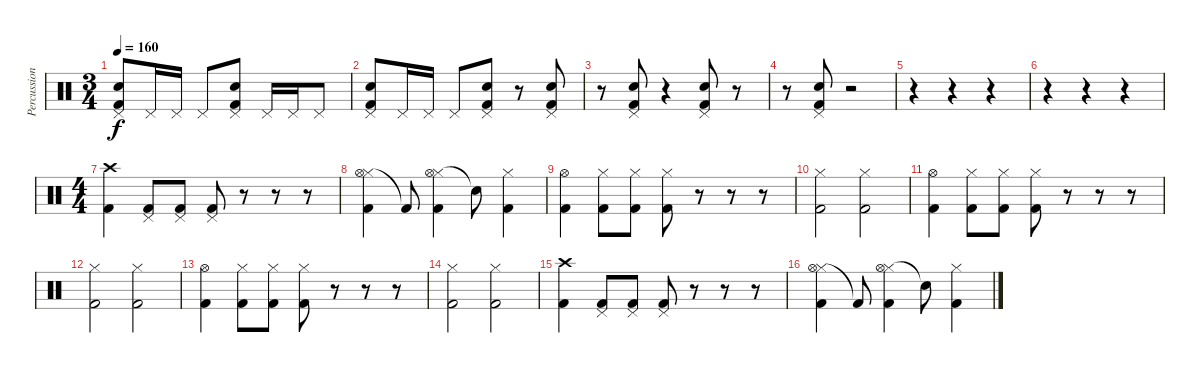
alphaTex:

\track ("Percussion" "Percussion") {instrument percussion}
\staff {score}
\articulation defaults
\ts (3 4)
\tempo 160
\clef neutral
\ks c
("Snare (hit) 2" "Kick (hit) 2" "Pedal Hi-Hat (hit)").8{dy f} "Pedal Hi-Hat (hit)".16 "Pedal Hi-Hat (hit)".16 "Pedal Hi-Hat (hit)".8 ("Electric Snare (hit)" "Kick (hit) 2" "Pedal Hi-Hat (hit)").8 "Pedal Hi-Hat (hit)".16 "Pedal Hi-Hat (hit)".16 "Pedal Hi-Hat (hit)".8 |
("Snare (hit) 2" "Kick (hit) 2" "Pedal Hi-Hat (hit)").8 "Pedal Hi-Hat (hit)".16 "Pedal Hi-Hat (hit)".16 "Pedal Hi-Hat (hit)".8 ("Electric Snare (hit)" "Kick (hit) 2" "Pedal Hi-Hat (hit)").8 r.8 ("Electric Snare (hit)" "Kick (hit) 2" "Pedal Hi-Hat (hit)").8 |
r.8 ("Electric Snare (hit)" "Kick (hit) 2" "Pedal Hi-Hat (hit)").8 r.4 ("Electric Snare (hit)" "Kick (hit) 2" "Pedal Hi-Hat (hit)").8 r.8 |
r.8 ("Electric Snare (hit)" "Kick (hit) 2" "Pedal Hi-Hat (hit)").8 r.2 |
r.4 r.4 r.4 |
r.4 r.4 r.4 |
\ts (4 4)
("Crash high (hit)" "Kick (hit) 2").4 ("Pedal Hi-Hat (hit)" "Kick (hit) 2").8 ("Pedal Hi-Hat (hit)" "Kick (hit) 2").8 ("Pedal Hi-Hat (hit)" "Kick (hit) 2").8 r.8 r.8 r.8 |
("Hi-Hat (closed)" "Hi-Hat (open)" "Kick (hit) 2").4 "Kick (hit) 2"{t}.8 ("Hi-Hat (closed)" "Hi-Hat (open)" "Kick (hit) 2").4 "Snare (hit)"{t}.8 ("Hi-Hat (closed)" "Kick (hit) 2").4 |
("Hi-Hat (open)" "Kick (hit) 2").4 ("Hi-Hat (closed)" "Kick (hit) 2").8 ("Hi-Hat (closed)" "Kick (hit) 2").8 ("Hi-Hat (closed)" "Kick (hit) 2").8 r.8 r.8 r.8 |
("Hi-Hat (closed)" "Kick (hit) 2").2 ("Hi-Hat (closed)" "Kick (hit) 2").2 |
("Hi-Hat (open)" "Kick (hit) 2").4 ("Hi-Hat (closed)" "Kick (hit) 2").8 ("Hi-Hat (closed)" "Kick (hit) 2").8 ("Hi-Hat (closed)" "Kick (hit) 2").8 r.8 r.8 r.8 |
("Hi-Hat (closed)" "Kick (hit) 2").2 ("Hi-Hat (closed)" "Kick (hit) 2").2 |
("Hi-Hat (open)" "Kick (hit) 2").4 ("Hi-Hat (closed)" "Kick (hit) 2").8 ("Hi-Hat (closed)" "Kick (hit) 2").8 ("Hi-Hat (closed)" "Kick (hit) 2").8 r.8 r.8 r.8 |
("Hi-Hat (closed)" "Kick (hit) 2").2 ("Hi-Hat (closed)" "Kick (hit) 2").2 |
("Crash high (hit)" "Kick (hit) 2").4 ("Pedal Hi-Hat (hit)" "Kick (hit) 2").8 ("Pedal Hi-Hat (hit)" "Kick (hit) 2").8 ("Pedal Hi-Hat (hit)" "Kick (hit) 2").8 r.8 r.8 r.8 |
("Hi-Hat (closed)" "Hi-Hat (open)" "Kick (hit) 2").4 "Kick (hit) 2"{t}.8 ("Hi-Hat (closed)" "Hi-Hat (open)" "Kick (hit) 2").4 "Snare (hit)"{t}.8 ("Hi-Hat (closed)" "Kick (hit) 2").4
